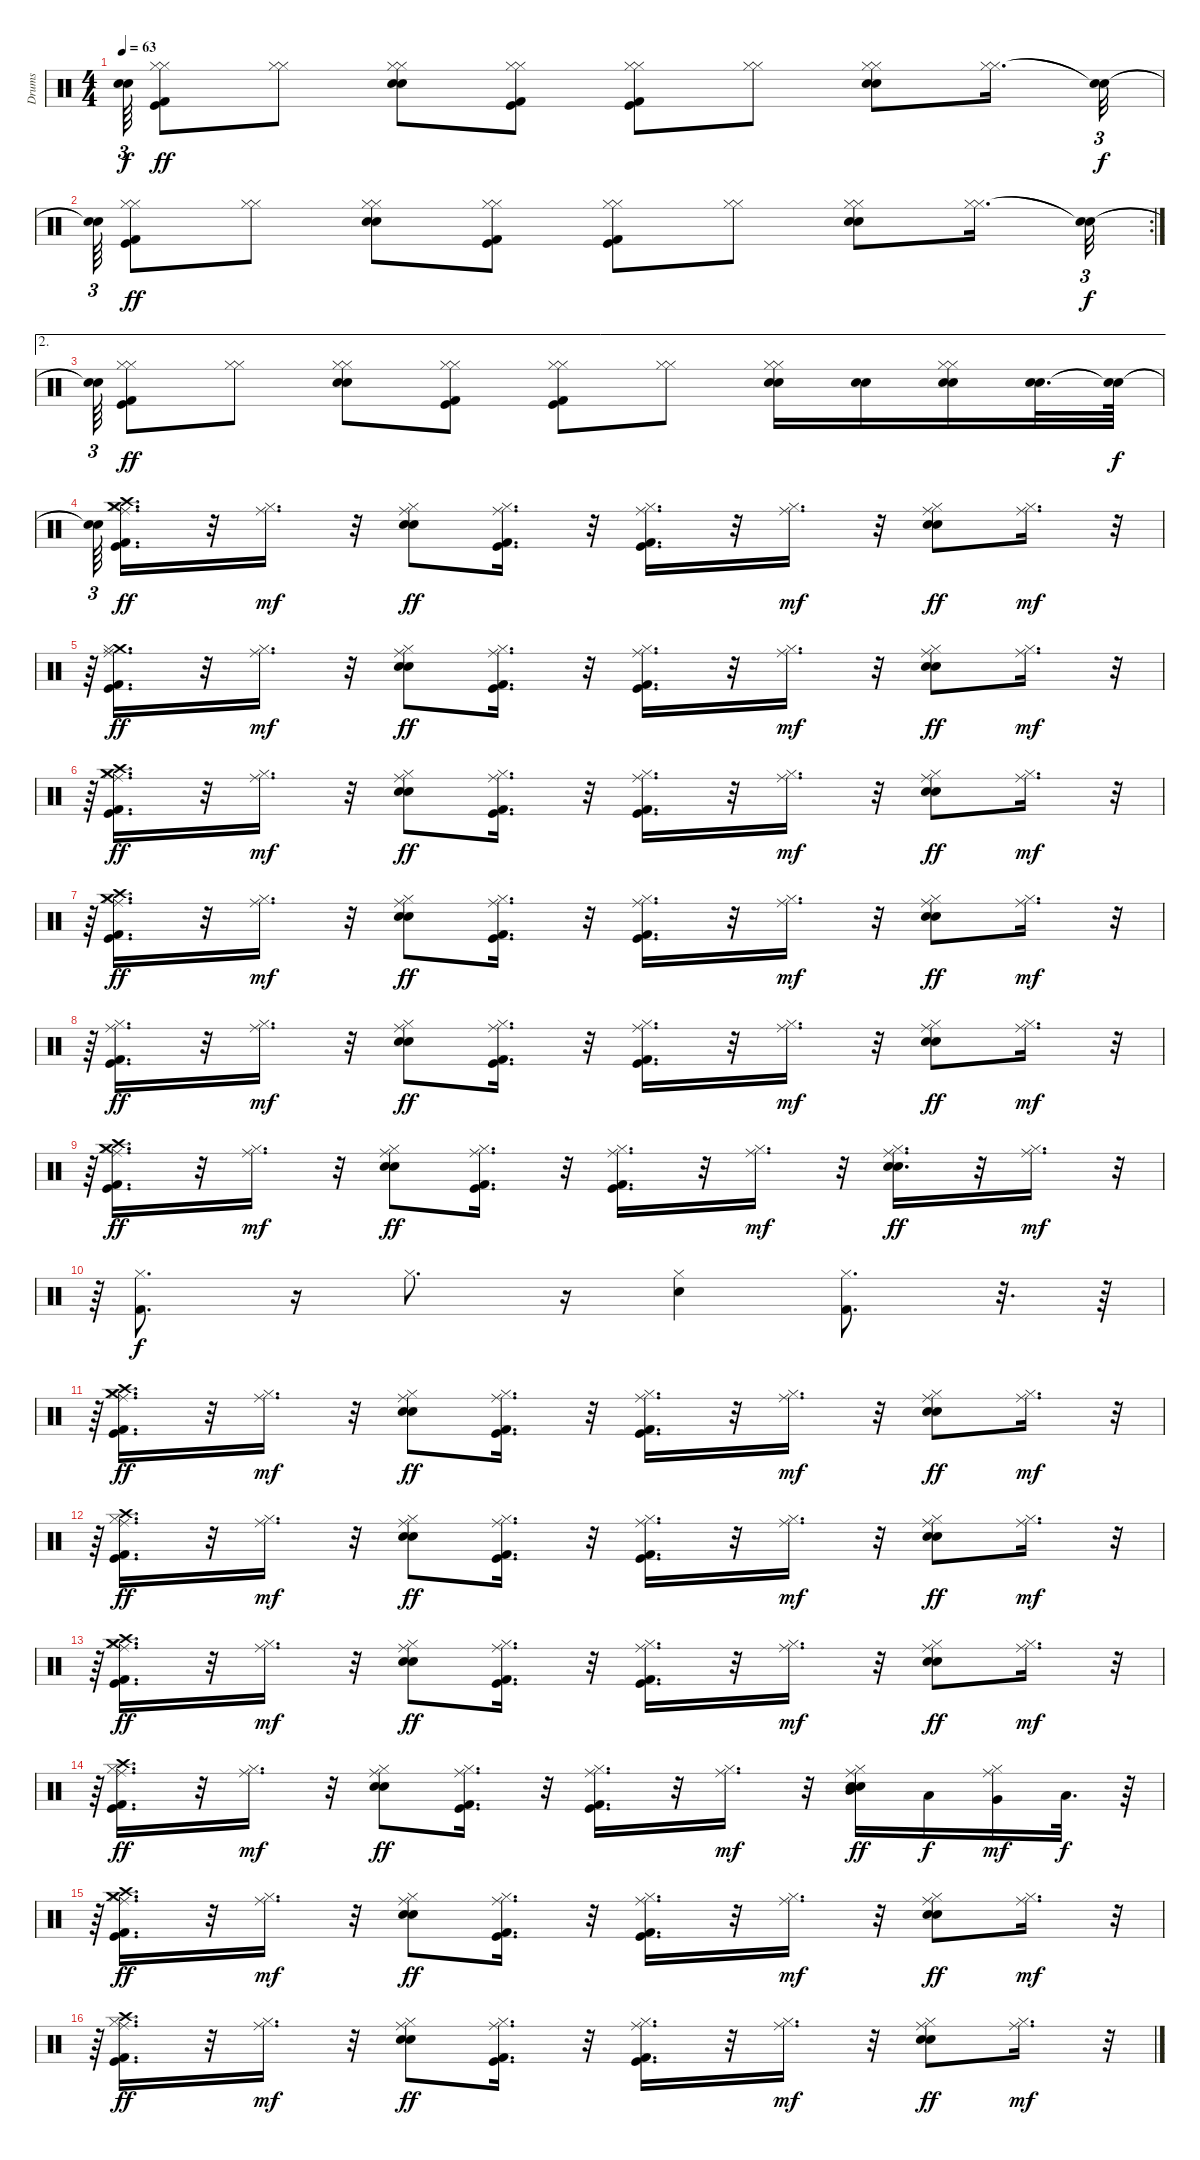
\track ("Drums" "Drums") {instrument percussion}
\staff {score}
\articulation defaults
\ts (4 4)
\tempo 63
\clef neutral
\ks c
("Snare (hit)"{t} "Snare (hit)"{t}).64{tu (3 2) dy f} ("Hi-Hat (closed)" "Kick (hit) 2" "Hi-Hat (closed)" "Kick (hit)").8{dy ff} ("Hi-Hat (closed)" "Hi-Hat (closed)").8 ("Snare (hit) 2" "Hi-Hat (closed)" "Hi-Hat (closed)" "Snare (hit) 2").8 ("Hi-Hat (closed)" "Kick (hit) 2" "Hi-Hat (closed)" "Kick (hit)").8 ("Hi-Hat (closed)" "Kick (hit) 2" "Hi-Hat (closed)" "Kick (hit)").8 ("Hi-Hat (closed)" "Hi-Hat (closed)").8 ("Snare (hit) 2" "Hi-Hat (closed)" "Snare (hit) 2" "Hi-Hat (closed)").8 ("Hi-Hat (closed)" "Hi-Hat (closed)").16{d} ("Snare (hit)"{t} "Snare (hit)"{t}).32{tu (3 2) dy f} |
\rc 2
("Snare (hit)"{t} "Snare (hit)"{t}).64{tu (3 2)} ("Hi-Hat (closed)" "Kick (hit) 2" "Hi-Hat (closed)" "Kick (hit)").8{dy ff} ("Hi-Hat (closed)" "Hi-Hat (closed)").8 ("Snare (hit) 2" "Hi-Hat (closed)" "Hi-Hat (closed)" "Snare (hit) 2").8 ("Hi-Hat (closed)" "Kick (hit) 2" "Hi-Hat (closed)" "Kick (hit)").8 ("Hi-Hat (closed)" "Kick (hit) 2" "Hi-Hat (closed)" "Kick (hit)").8 ("Hi-Hat (closed)" "Hi-Hat (closed)").8 ("Snare (hit) 2" "Hi-Hat (closed)" "Snare (hit) 2" "Hi-Hat (closed)").8 ("Hi-Hat (closed)" "Hi-Hat (closed)").16{d} ("Snare (hit)"{t} "Snare (hit)"{t}).32{tu (3 2) dy f} |
\ae 2
("Snare (hit)"{t} "Snare (hit)"{t}).64{tu (3 2)} ("Hi-Hat (closed)" "Kick (hit) 2" "Hi-Hat (closed)" "Kick (hit)").8{dy ff} ("Hi-Hat (closed)" "Hi-Hat (closed)").8 ("Snare (hit) 2" "Hi-Hat (closed)" "Hi-Hat (closed)" "Snare (hit) 2").8 ("Hi-Hat (closed)" "Kick (hit) 2" "Hi-Hat (closed)" "Kick (hit)").8 ("Hi-Hat (closed)" "Kick (hit) 2" "Hi-Hat (closed)" "Kick (hit)").8 ("Hi-Hat (closed)" "Hi-Hat (closed)").8 ("Snare (hit) 2" "Hi-Hat (closed)" "Snare (hit) 2" "Hi-Hat (closed)").16 ("Snare (hit) 2" "Snare (hit) 2").16 ("Snare (hit) 2" "Hi-Hat (closed)" "Snare (hit) 2" "Hi-Hat (closed)").16 ("Snare (hit) 2" "Snare (hit) 2").32{d} ("Snare (hit)"{t} "Snare (hit)"{t}).64{dy f} |
("Snare (hit)"{t} "Snare (hit)"{t}).64{tu (3 2)} ("Crash medium (hit)" "Hi-Hat (closed)" "Kick (hit) 2" "Crash high (hit)" "Ride (middle)" "Kick (hit)").16{d dy ff} r.32 ("Hi-Hat (closed)" "Ride (middle)").16{d dy mf} r.32 ("Snare (hit) 2" "Hi-Hat (closed)" "Ride (middle)" "Snare (hit) 2").8{dy ff} ("Hi-Hat (closed)" "Kick (hit) 2" "Ride (middle)" "Kick (hit)").16{d} r.32 ("Hi-Hat (closed)" "Kick (hit) 2" "Ride (middle)" "Kick (hit)").16{d} r.32 ("Hi-Hat (closed)" "Ride (middle)").16{d dy mf} r.32 ("Snare (hit) 2" "Hi-Hat (closed)" "Ride (middle)" "Snare (hit) 2").8{dy ff} ("Hi-Hat (closed)" "Ride (middle)").16{d dy mf} r.32{tu (3 2)} |
r.64{tu (3 2)} ("Crash medium (hit)" "Hi-Hat (closed)" "Kick (hit) 2" "Ride (middle)" "Kick (hit)").16{d dy ff} r.32 ("Hi-Hat (closed)" "Ride (middle)").16{d dy mf} r.32 ("Snare (hit) 2" "Hi-Hat (closed)" "Ride (middle)" "Snare (hit) 2").8{dy ff} ("Hi-Hat (closed)" "Kick (hit) 2" "Ride (middle)" "Kick (hit)").16{d} r.32 ("Hi-Hat (closed)" "Kick (hit) 2" "Ride (middle)" "Kick (hit)").16{d} r.32 ("Hi-Hat (closed)" "Ride (middle)").16{d dy mf} r.32 ("Snare (hit) 2" "Hi-Hat (closed)" "Ride (middle)" "Snare (hit) 2").8{dy ff} ("Hi-Hat (closed)" "Ride (middle)").16{d dy mf} r.32{tu (3 2)} |
r.64{tu (3 2)} ("Crash medium (hit)" "Hi-Hat (closed)" "Kick (hit) 2" "Ride (middle)" "Kick (hit)" "Crash high (hit)").16{d dy ff} r.32 ("Hi-Hat (closed)" "Ride (middle)").16{d dy mf} r.32 ("Snare (hit) 2" "Hi-Hat (closed)" "Ride (middle)" "Snare (hit) 2").8{dy ff} ("Hi-Hat (closed)" "Kick (hit) 2" "Ride (middle)" "Kick (hit)").16{d} r.32 ("Hi-Hat (closed)" "Kick (hit) 2" "Ride (middle)" "Kick (hit)").16{d} r.32 ("Hi-Hat (closed)" "Ride (middle)").16{d dy mf} r.32 ("Snare (hit) 2" "Hi-Hat (closed)" "Ride (middle)" "Snare (hit) 2").8{dy ff} ("Hi-Hat (closed)" "Ride (middle)").16{d dy mf} r.32{tu (3 2)} |
r.64{tu (3 2)} ("Crash medium (hit)" "Hi-Hat (closed)" "Kick (hit) 2" "Crash high (hit)" "Ride (middle)" "Kick (hit)").16{d dy ff} r.32 ("Hi-Hat (closed)" "Ride (middle)").16{d dy mf} r.32 ("Snare (hit) 2" "Hi-Hat (closed)" "Ride (middle)" "Snare (hit) 2").8{dy ff} ("Hi-Hat (closed)" "Kick (hit) 2" "Ride (middle)" "Kick (hit)").16{d} r.32 ("Hi-Hat (closed)" "Kick (hit) 2" "Ride (middle)" "Kick (hit)").16{d} r.32 ("Hi-Hat (closed)" "Ride (middle)").16{d dy mf} r.32 ("Snare (hit) 2" "Hi-Hat (closed)" "Ride (middle)" "Snare (hit) 2").8{dy ff} ("Hi-Hat (closed)" "Ride (middle)").16{d dy mf} r.32{tu (3 2)} |
r.64{tu (3 2)} ("Hi-Hat (closed)" "Kick (hit) 2" "Ride (middle)" "Kick (hit)").16{d dy ff} r.32 ("Hi-Hat (closed)" "Ride (middle)").16{d dy mf} r.32 ("Snare (hit) 2" "Hi-Hat (closed)" "Ride (middle)" "Snare (hit) 2").8{dy ff} ("Hi-Hat (closed)" "Kick (hit) 2" "Ride (middle)" "Kick (hit)").16{d} r.32 ("Hi-Hat (closed)" "Kick (hit) 2" "Ride (middle)" "Kick (hit)").16{d} r.32 ("Hi-Hat (closed)" "Ride (middle)").16{d dy mf} r.32 ("Snare (hit) 2" "Hi-Hat (closed)" "Ride (middle)" "Snare (hit) 2").8{dy ff} ("Hi-Hat (closed)" "Ride (middle)").16{d dy mf} r.32{tu (3 2)} |
r.64{tu (3 2)} ("Crash medium (hit)" "Hi-Hat (closed)" "Kick (hit) 2" "Crash high (hit)" "Ride (middle)" "Kick (hit)").16{d dy ff} r.32 ("Hi-Hat (closed)" "Ride (middle)").16{d dy mf} r.32 ("Snare (hit) 2" "Hi-Hat (closed)" "Ride (middle)" "Snare (hit) 2").8{dy ff} ("Hi-Hat (closed)" "Kick (hit) 2" "Ride (middle)" "Kick (hit)").16{d} r.32 ("Hi-Hat (closed)" "Kick (hit) 2" "Ride (middle)" "Kick (hit)").16{d} r.32 ("Hi-Hat (closed)" "Ride (middle)").16{d dy mf} r.32 ("Snare (hit) 2" "Hi-Hat (closed)" "Ride (middle)" "Snare (hit) 2").16{d dy ff} r.32 ("Hi-Hat (closed)" "Ride (middle)").16{d dy mf} r.32{tu (3 2)} |
r.64{tu (3 2)} ("Kick (hit) 2" "Hi-Hat (closed)").8{d dy f} r.16 "Hi-Hat (closed)".8{d} r.16 ("Snare (hit) 2" "Hi-Hat (closed)").4 ("Kick (hit) 2" "Hi-Hat (closed)").8{d} r.32{d} r.64 |
r.64{tu (3 2)} ("Hi-Hat (closed)" "Kick (hit) 2" "Crash medium (hit)" "Crash high (hit)" "Ride (middle)" "Kick (hit)").16{d dy ff} r.32 ("Hi-Hat (closed)" "Ride (middle)").16{d dy mf} r.32 ("Snare (hit) 2" "Hi-Hat (closed)" "Ride (middle)" "Snare (hit) 2").8{dy ff} ("Hi-Hat (closed)" "Kick (hit) 2" "Ride (middle)" "Kick (hit)").16{d} r.32 ("Hi-Hat (closed)" "Kick (hit) 2" "Ride (middle)" "Kick (hit)").16{d} r.32 ("Hi-Hat (closed)" "Ride (middle)").16{d dy mf} r.32 ("Snare (hit) 2" "Hi-Hat (closed)" "Ride (middle)" "Snare (hit) 2").8{dy ff} ("Hi-Hat (closed)" "Ride (middle)").16{d dy mf} r.32{tu (3 2)} |
r.64{tu (3 2)} ("Hi-Hat (closed)" "Kick (hit) 2" "Crash high (hit)" "Ride (middle)" "Kick (hit)").16{d dy ff} r.32 ("Hi-Hat (closed)" "Ride (middle)").16{d dy mf} r.32 ("Snare (hit) 2" "Hi-Hat (closed)" "Ride (middle)" "Snare (hit) 2").8{dy ff} ("Hi-Hat (closed)" "Kick (hit) 2" "Ride (middle)" "Kick (hit)").16{d} r.32 ("Hi-Hat (closed)" "Kick (hit) 2" "Ride (middle)" "Kick (hit)").16{d} r.32 ("Hi-Hat (closed)" "Ride (middle)").16{d dy mf} r.32 ("Snare (hit) 2" "Hi-Hat (closed)" "Ride (middle)" "Snare (hit) 2").8{dy ff} ("Hi-Hat (closed)" "Ride (middle)").16{d dy mf} r.32{tu (3 2)} |
r.64{tu (3 2)} ("Crash medium (hit)" "Hi-Hat (closed)" "Kick (hit) 2" "Crash high (hit)" "Ride (middle)" "Kick (hit)").16{d dy ff} r.32 ("Hi-Hat (closed)" "Ride (middle)").16{d dy mf} r.32 ("Snare (hit) 2" "Hi-Hat (closed)" "Ride (middle)" "Snare (hit) 2").8{dy ff} ("Hi-Hat (closed)" "Kick (hit) 2" "Ride (middle)" "Kick (hit)").16{d} r.32 ("Hi-Hat (closed)" "Kick (hit) 2" "Ride (middle)" "Kick (hit)").16{d} r.32 ("Hi-Hat (closed)" "Ride (middle)").16{d dy mf} r.32 ("Snare (hit) 2" "Hi-Hat (closed)" "Ride (middle)" "Snare (hit) 2").8{dy ff} ("Hi-Hat (closed)" "Ride (middle)").16{d dy mf} r.32{tu (3 2)} |
r.64{tu (3 2)} ("Hi-Hat (closed)" "Kick (hit) 2" "Crash high (hit)" "Ride (middle)" "Kick (hit)").16{d dy ff} r.32 ("Hi-Hat (closed)" "Ride (middle)").16{d dy mf} r.32 ("Snare (hit) 2" "Hi-Hat (closed)" "Ride (middle)" "Snare (hit) 2").8{dy ff} ("Hi-Hat (closed)" "Kick (hit) 2" "Ride (middle)" "Kick (hit)").16{d} r.32 ("Hi-Hat (closed)" "Kick (hit) 2" "Ride (middle)" "Kick (hit)").16{d} r.32 ("Hi-Hat (closed)" "Ride (middle)").16{d dy mf} r.32 ("Mid Tom (hit)" "Snare (hit) 2" "Hi-Hat (closed)" "Ride (middle)" "Snare (hit) 2").16{dy ff} "Low Tom (hit)".16{dy f} ("Very Low Tom (hit)" "Hi-Hat (closed)" "Ride (middle)").16{dy mf} "Low Floor Tom (hit)".32{d dy f} r.64 |
r.64{tu (3 2)} ("Crash medium (hit)" "Hi-Hat (closed)" "Kick (hit) 2" "Crash high (hit)" "Ride (middle)" "Kick (hit)").16{d dy ff} r.32 ("Hi-Hat (closed)" "Ride (middle)").16{d dy mf} r.32 ("Snare (hit) 2" "Hi-Hat (closed)" "Ride (middle)" "Snare (hit) 2").8{dy ff} ("Hi-Hat (closed)" "Kick (hit) 2" "Ride (middle)" "Kick (hit)").16{d} r.32 ("Hi-Hat (closed)" "Kick (hit) 2" "Ride (middle)" "Kick (hit)").16{d} r.32 ("Hi-Hat (closed)" "Ride (middle)").16{d dy mf} r.32 ("Snare (hit) 2" "Hi-Hat (closed)" "Ride (middle)" "Snare (hit) 2").8{dy ff} ("Hi-Hat (closed)" "Ride (middle)").16{d dy mf} r.32{tu (3 2)} |
r.64{tu (3 2)} ("Hi-Hat (closed)" "Kick (hit) 2" "Crash high (hit)" "Ride (middle)" "Kick (hit)").16{d dy ff} r.32 ("Hi-Hat (closed)" "Ride (middle)").16{d dy mf} r.32 ("Snare (hit) 2" "Hi-Hat (closed)" "Ride (middle)" "Snare (hit) 2").8{dy ff} ("Hi-Hat (closed)" "Kick (hit) 2" "Ride (middle)" "Kick (hit)").16{d} r.32 ("Hi-Hat (closed)" "Kick (hit) 2" "Ride (middle)" "Kick (hit)").16{d} r.32 ("Hi-Hat (closed)" "Ride (middle)").16{d dy mf} r.32 ("Snare (hit) 2" "Hi-Hat (closed)" "Ride (middle)" "Snare (hit) 2").8{dy ff} ("Hi-Hat (closed)" "Ride (middle)").16{d dy mf} r.32{tu (3 2)}
